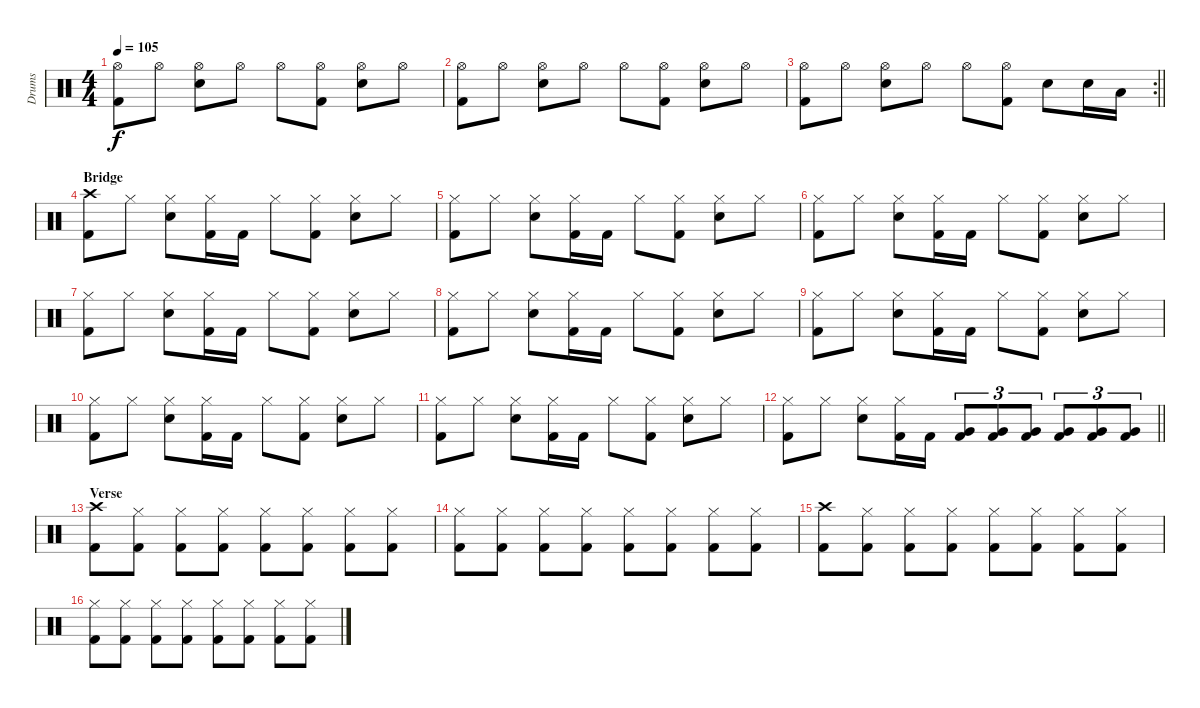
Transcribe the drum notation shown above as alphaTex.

\track ("Drums" "Drums") {instrument percussion}
\staff {score}
\articulation defaults
\ts (4 4)
\tempo 105
\clef neutral
\ks c
("Hi-Hat (open)" "Kick (hit) 2").8{dy f} "Hi-Hat (open)".8 ("Hi-Hat (open)" "Electric Snare (hit)").8 "Hi-Hat (open)".8 "Hi-Hat (open)".8 ("Hi-Hat (open)" "Kick (hit) 2").8 ("Hi-Hat (open)" "Electric Snare (hit)").8 "Hi-Hat (open)".8 |
("Hi-Hat (open)" "Kick (hit) 2").8 "Hi-Hat (open)".8 ("Hi-Hat (open)" "Electric Snare (hit)").8 "Hi-Hat (open)".8 "Hi-Hat (open)".8 ("Hi-Hat (open)" "Kick (hit) 2").8 ("Hi-Hat (open)" "Electric Snare (hit)").8 "Hi-Hat (open)".8 |
\rc 2
\barLineRight lightlight
("Hi-Hat (open)" "Kick (hit) 2").8 "Hi-Hat (open)".8 ("Hi-Hat (open)" "Electric Snare (hit)").8 "Hi-Hat (open)".8 "Hi-Hat (open)".8 ("Hi-Hat (open)" "Kick (hit) 2").8 "Electric Snare (hit)".8 "Electric Snare (hit)".16 "Low Tom (hit)".16 |
\section ("" "Bridge")
("Crash high (hit)" "Kick (hit) 2").8 "Hi-Hat (closed)".8 ("Hi-Hat (closed)" "Electric Snare (hit)").8 ("Hi-Hat (closed)" "Kick (hit) 2").16 "Kick (hit) 2".16 "Hi-Hat (closed)".8 ("Hi-Hat (closed)" "Kick (hit) 2").8 ("Hi-Hat (closed)" "Electric Snare (hit)").8 "Hi-Hat (closed)".8 |
("Hi-Hat (closed)" "Kick (hit) 2").8 "Hi-Hat (closed)".8 ("Hi-Hat (closed)" "Electric Snare (hit)").8 ("Hi-Hat (closed)" "Kick (hit) 2").16 "Kick (hit) 2".16 "Hi-Hat (closed)".8 ("Hi-Hat (closed)" "Kick (hit) 2").8 ("Hi-Hat (closed)" "Electric Snare (hit)").8 "Hi-Hat (closed)".8 |
("Hi-Hat (closed)" "Kick (hit) 2").8 "Hi-Hat (closed)".8 ("Hi-Hat (closed)" "Electric Snare (hit)").8 ("Hi-Hat (closed)" "Kick (hit) 2").16 "Kick (hit) 2".16 "Hi-Hat (closed)".8 ("Hi-Hat (closed)" "Kick (hit) 2").8 ("Hi-Hat (closed)" "Electric Snare (hit)").8 "Hi-Hat (closed)".8 |
("Hi-Hat (closed)" "Kick (hit) 2").8 "Hi-Hat (closed)".8 ("Hi-Hat (closed)" "Electric Snare (hit)").8 ("Hi-Hat (closed)" "Kick (hit) 2").16 "Kick (hit) 2".16 "Hi-Hat (closed)".8 ("Hi-Hat (closed)" "Kick (hit) 2").8 ("Hi-Hat (closed)" "Electric Snare (hit)").8 "Hi-Hat (closed)".8 |
("Hi-Hat (closed)" "Kick (hit) 2").8 "Hi-Hat (closed)".8 ("Hi-Hat (closed)" "Electric Snare (hit)").8 ("Hi-Hat (closed)" "Kick (hit) 2").16 "Kick (hit) 2".16 "Hi-Hat (closed)".8 ("Hi-Hat (closed)" "Kick (hit) 2").8 ("Hi-Hat (closed)" "Electric Snare (hit)").8 "Hi-Hat (closed)".8 |
("Hi-Hat (closed)" "Kick (hit) 2").8 "Hi-Hat (closed)".8 ("Hi-Hat (closed)" "Electric Snare (hit)").8 ("Hi-Hat (closed)" "Kick (hit) 2").16 "Kick (hit) 2".16 "Hi-Hat (closed)".8 ("Hi-Hat (closed)" "Kick (hit) 2").8 ("Hi-Hat (closed)" "Electric Snare (hit)").8 "Hi-Hat (closed)".8 |
("Hi-Hat (closed)" "Kick (hit) 2").8 "Hi-Hat (closed)".8 ("Hi-Hat (closed)" "Electric Snare (hit)").8 ("Hi-Hat (closed)" "Kick (hit) 2").16 "Kick (hit) 2".16 "Hi-Hat (closed)".8 ("Hi-Hat (closed)" "Kick (hit) 2").8 ("Hi-Hat (closed)" "Electric Snare (hit)").8 "Hi-Hat (closed)".8 |
("Hi-Hat (closed)" "Kick (hit) 2").8 "Hi-Hat (closed)".8 ("Hi-Hat (closed)" "Electric Snare (hit)").8 ("Hi-Hat (closed)" "Kick (hit) 2").16 "Kick (hit) 2".16 "Hi-Hat (closed)".8 ("Hi-Hat (closed)" "Kick (hit) 2").8 ("Hi-Hat (closed)" "Electric Snare (hit)").8 "Hi-Hat (closed)".8 |
\barLineRight lightlight
("Hi-Hat (closed)" "Kick (hit) 2").8 "Hi-Hat (closed)".8 ("Hi-Hat (closed)" "Electric Snare (hit)").8 ("Hi-Hat (closed)" "Kick (hit) 2").16 "Kick (hit) 2".16 ("Very Low Tom (hit)" "Kick (hit) 2").8{tu (3 2)} ("Very Low Tom (hit)" "Kick (hit) 2").8{tu (3 2)} ("Very Low Tom (hit)" "Kick (hit) 2").8{tu (3 2)} ("Very Low Tom (hit)" "Kick (hit) 2").8{tu (3 2)} ("Very Low Tom (hit)" "Kick (hit) 2").8{tu (3 2)} ("Very Low Tom (hit)" "Kick (hit) 2").8{tu (3 2)} |
\section ("" "Verse")
("Crash high (hit)" "Kick (hit) 2").8 ("Hi-Hat (closed)" "Kick (hit) 2").8 ("Hi-Hat (closed)" "Kick (hit) 2").8 ("Hi-Hat (closed)" "Kick (hit) 2").8 ("Hi-Hat (closed)" "Kick (hit) 2").8 ("Hi-Hat (closed)" "Kick (hit) 2").8 ("Hi-Hat (closed)" "Kick (hit) 2").8 ("Hi-Hat (closed)" "Kick (hit) 2").8 |
("Hi-Hat (closed)" "Kick (hit) 2").8 ("Hi-Hat (closed)" "Kick (hit) 2").8 ("Hi-Hat (closed)" "Kick (hit) 2").8 ("Hi-Hat (closed)" "Kick (hit) 2").8 ("Hi-Hat (closed)" "Kick (hit) 2").8 ("Hi-Hat (closed)" "Kick (hit) 2").8 ("Hi-Hat (closed)" "Kick (hit) 2").8 ("Hi-Hat (closed)" "Kick (hit) 2").8 |
("Crash high (hit)" "Kick (hit) 2").8 ("Hi-Hat (closed)" "Kick (hit) 2").8 ("Hi-Hat (closed)" "Kick (hit) 2").8 ("Hi-Hat (closed)" "Kick (hit) 2").8 ("Hi-Hat (closed)" "Kick (hit) 2").8 ("Hi-Hat (closed)" "Kick (hit) 2").8 ("Hi-Hat (closed)" "Kick (hit) 2").8 ("Hi-Hat (closed)" "Kick (hit) 2").8 |
("Hi-Hat (closed)" "Kick (hit) 2").8 ("Hi-Hat (closed)" "Kick (hit) 2").8 ("Hi-Hat (closed)" "Kick (hit) 2").8 ("Hi-Hat (closed)" "Kick (hit) 2").8 ("Hi-Hat (closed)" "Kick (hit) 2").8 ("Hi-Hat (closed)" "Kick (hit) 2").8 ("Hi-Hat (closed)" "Kick (hit) 2").8 ("Hi-Hat (closed)" "Kick (hit) 2").8
